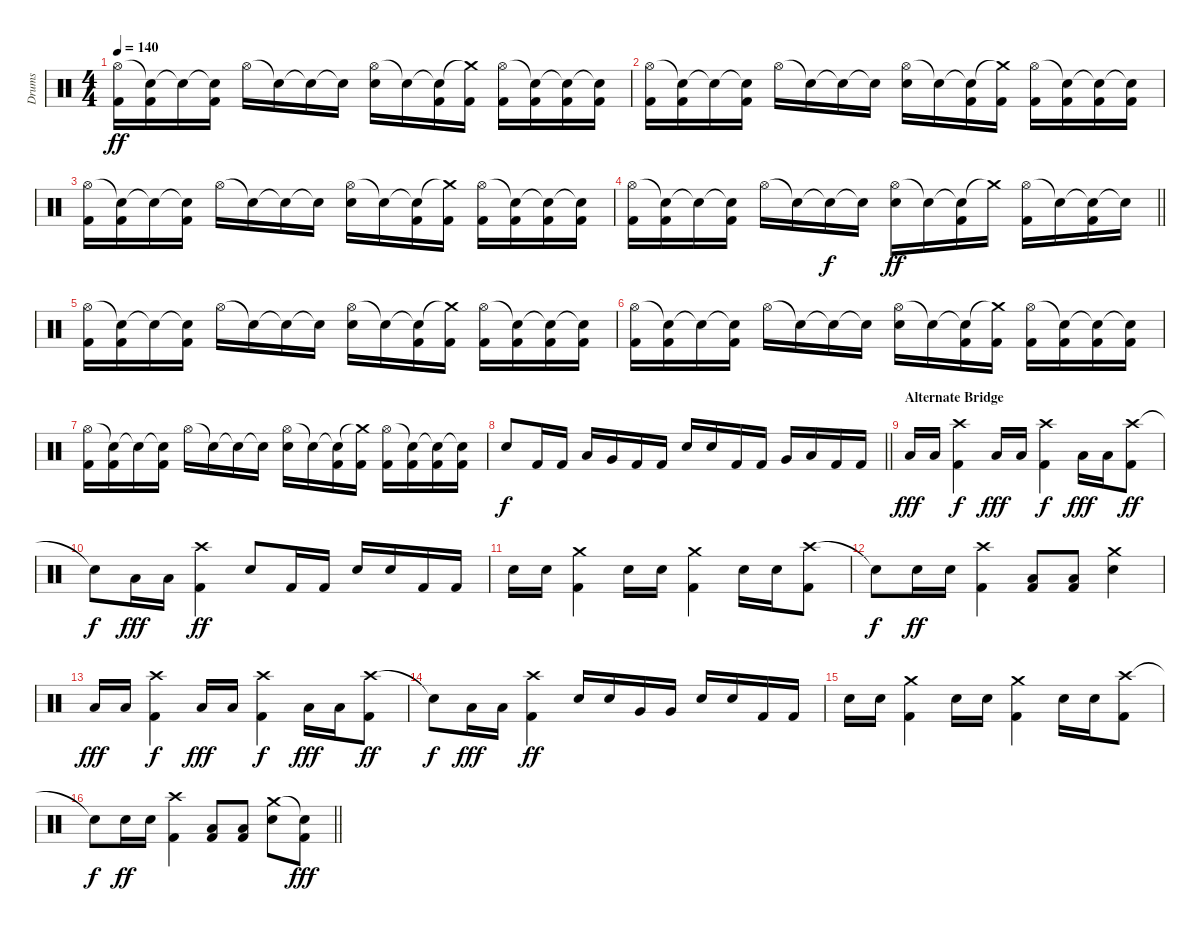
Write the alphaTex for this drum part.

\track ("Drums" "Drums") {instrument percussion}
\staff {score}
\articulation defaults
\ts (4 4)
\tempo 140
\clef neutral
\ks c
("Hi-Hat (open)" "Kick (hit) 2").16{dy ff} ("Snare (hit)"{t} "Kick (hit) 2").16 "Snare (hit)"{t}.16 ("Snare (hit)"{t} "Kick (hit) 2").16 "Hi-Hat (open)".16 "Snare (hit)"{t}.16 "Snare (hit)"{t}.16 "Snare (hit)"{t}.16 ("Hi-Hat (open)" "Electric Snare (hit)").16 "Snare (hit)"{t}.16 ("Snare (hit)"{t} "Kick (hit) 2").16 ("Crash medium (hit)"{t} "Kick (hit) 2").16 ("Hi-Hat (open)" "Kick (hit) 2").16 ("Snare (hit)"{t} "Kick (hit) 2").16 ("Snare (hit)"{t} "Kick (hit) 2").16 ("Snare (hit)"{t} "Kick (hit) 2").16 |
("Hi-Hat (open)" "Kick (hit) 2").16 ("Snare (hit)"{t} "Kick (hit) 2").16 "Snare (hit)"{t}.16 ("Snare (hit)"{t} "Kick (hit) 2").16 "Hi-Hat (open)".16 "Snare (hit)"{t}.16 "Snare (hit)"{t}.16 "Snare (hit)"{t}.16 ("Hi-Hat (open)" "Electric Snare (hit)").16 "Snare (hit)"{t}.16 ("Snare (hit)"{t} "Kick (hit) 2").16 ("Crash medium (hit)"{t} "Kick (hit) 2").16 ("Hi-Hat (open)" "Kick (hit) 2").16 ("Snare (hit)"{t} "Kick (hit) 2").16 ("Snare (hit)"{t} "Kick (hit) 2").16 ("Snare (hit)"{t} "Kick (hit) 2").16 |
("Hi-Hat (open)" "Kick (hit) 2").16 ("Snare (hit)"{t} "Kick (hit) 2").16 "Snare (hit)"{t}.16 ("Snare (hit)"{t} "Kick (hit) 2").16 "Hi-Hat (open)".16 "Snare (hit)"{t}.16 "Snare (hit)"{t}.16 "Snare (hit)"{t}.16 ("Hi-Hat (open)" "Electric Snare (hit)").16 "Snare (hit)"{t}.16 ("Snare (hit)"{t} "Kick (hit) 2").16 ("Crash medium (hit)"{t} "Kick (hit) 2").16 ("Hi-Hat (open)" "Kick (hit) 2").16 ("Snare (hit)"{t} "Kick (hit) 2").16 ("Snare (hit)"{t} "Kick (hit) 2").16 ("Snare (hit)"{t} "Kick (hit) 2").16 |
\barLineRight lightlight
("Hi-Hat (open)" "Kick (hit) 2").16 ("Snare (hit)"{t} "Kick (hit) 2").16 "Snare (hit)"{t}.16 ("Snare (hit)"{t} "Kick (hit) 2").16 "Hi-Hat (open)".16 "Snare (hit)"{t}.16 "Snare (hit)"{t}.16{dy f} "Snare (hit)"{t}.16 ("Hi-Hat (open)" "Electric Snare (hit)").16{dy ff} "Snare (hit)"{t}.16 ("Snare (hit)"{t} "Kick (hit) 2").16 "Crash medium (hit)"{t}.16 ("Hi-Hat (open)" "Kick (hit) 2").16 "Snare (hit)"{t}.16 ("Snare (hit)"{t} "Kick (hit) 2").16 "Snare (hit)"{t}.16 |
("Hi-Hat (open)" "Kick (hit) 2").16 ("Snare (hit)"{t} "Kick (hit) 2").16 "Snare (hit)"{t}.16 ("Snare (hit)"{t} "Kick (hit) 2").16 "Hi-Hat (open)".16 "Snare (hit)"{t}.16 "Snare (hit)"{t}.16 "Snare (hit)"{t}.16 ("Hi-Hat (open)" "Electric Snare (hit)").16 "Snare (hit)"{t}.16 ("Snare (hit)"{t} "Kick (hit) 2").16 ("Crash medium (hit)"{t} "Kick (hit) 2").16 ("Hi-Hat (open)" "Kick (hit) 2").16 ("Snare (hit)"{t} "Kick (hit) 2").16 ("Snare (hit)"{t} "Kick (hit) 2").16 ("Snare (hit)"{t} "Kick (hit) 2").16 |
("Hi-Hat (open)" "Kick (hit) 2").16 ("Snare (hit)"{t} "Kick (hit) 2").16 "Snare (hit)"{t}.16 ("Snare (hit)"{t} "Kick (hit) 2").16 "Hi-Hat (open)".16 "Snare (hit)"{t}.16 "Snare (hit)"{t}.16 "Snare (hit)"{t}.16 ("Hi-Hat (open)" "Electric Snare (hit)").16 "Snare (hit)"{t}.16 ("Snare (hit)"{t} "Kick (hit) 2").16 ("Crash medium (hit)"{t} "Kick (hit) 2").16 ("Hi-Hat (open)" "Kick (hit) 2").16 ("Snare (hit)"{t} "Kick (hit) 2").16 ("Snare (hit)"{t} "Kick (hit) 2").16 ("Snare (hit)"{t} "Kick (hit) 2").16 |
("Hi-Hat (open)" "Kick (hit) 2").16 ("Snare (hit)"{t} "Kick (hit) 2").16 "Snare (hit)"{t}.16 ("Snare (hit)"{t} "Kick (hit) 2").16 "Hi-Hat (open)".16 "Snare (hit)"{t}.16 "Snare (hit)"{t}.16 "Snare (hit)"{t}.16 ("Hi-Hat (open)" "Electric Snare (hit)").16 "Snare (hit)"{t}.16 ("Snare (hit)"{t} "Kick (hit) 2").16 ("Crash medium (hit)"{t} "Kick (hit) 2").16 ("Hi-Hat (open)" "Kick (hit) 2").16 ("Snare (hit)"{t} "Kick (hit) 2").16 ("Snare (hit)"{t} "Kick (hit) 2").16 ("Snare (hit)"{t} "Kick (hit) 2").16 |
\barLineRight lightlight "Electric Snare (hit)".8{dy f} "Kick (hit) 2".16 "Kick (hit) 2".16 "Low Tom (hit)".16 "Very Low Tom (hit)".16 "Kick (hit) 2".16 "Kick (hit) 2".16 "Electric Snare (hit)".16 "Electric Snare (hit)".16 "Kick (hit) 2".16 "Kick (hit) 2".16 "Very Low Tom (hit)".16 "Low Floor Tom (hit)".16 "Kick (hit) 2".16 "Kick (hit) 2".16
|
\section ("" "Alternate Bridge")
"Low Floor Tom (hit)".16{dy fff} "Low Floor Tom (hit)".16 ("Crash high (hit)" "Kick (hit) 2").4{dy f} "Low Floor Tom (hit)".16{dy fff} "Low Floor Tom (hit)".16 ("Crash high (hit)" "Kick (hit) 2").4{dy f} "Low Floor Tom (hit)".16{dy fff} "Low Floor Tom (hit)".16 ("Crash high (hit)" "Kick (hit) 2").8{dy ff} |
"Snare (hit)"{t}.8{dy f} "Low Floor Tom (hit)".16{dy fff} "Low Floor Tom (hit)".16 ("Crash high (hit)" "Kick (hit) 2").4{dy ff} "Electric Snare (hit)".8 "Kick (hit) 2".16 "Kick (hit) 2".16 "Electric Snare (hit)".16 "Electric Snare (hit)".16 "Kick (hit) 2".16 "Kick (hit) 2".16 |
"Electric Snare (hit)".16 "Electric Snare (hit)".16 ("Crash medium (hit)" "Kick (hit) 2").4 "Electric Snare (hit)".16 "Electric Snare (hit)".16 ("Crash medium (hit)" "Kick (hit) 2").4 "Electric Snare (hit)".16 "Electric Snare (hit)".16 ("Crash high (hit)" "Kick (hit) 2").8 |
"Snare (hit)"{t}.8{dy f} "Electric Snare (hit)".16{dy ff} "Electric Snare (hit)".16 ("Crash high (hit)" "Kick (hit) 2").4 ("Low Floor Tom (hit)" "Kick (hit) 2").8 ("Low Floor Tom (hit)" "Kick (hit) 2").8 ("Crash medium (hit)" "Electric Snare (hit)").4 |
"Low Floor Tom (hit)".16{dy fff} "Low Floor Tom (hit)".16 ("Crash high (hit)" "Kick (hit) 2").4{dy f} "Low Floor Tom (hit)".16{dy fff} "Low Floor Tom (hit)".16 ("Crash high (hit)" "Kick (hit) 2").4{dy f} "Low Floor Tom (hit)".16{dy fff} "Low Floor Tom (hit)".16 ("Crash high (hit)" "Kick (hit) 2").8{dy ff} |
"Snare (hit)"{t}.8{dy f} "Low Floor Tom (hit)".16{dy fff} "Low Floor Tom (hit)".16 ("Crash high (hit)" "Kick (hit) 2").4{dy ff} "Electric Snare (hit)".16 "Electric Snare (hit)".16 "Very Low Tom (hit)".16 "Very Low Tom (hit)".16 "Electric Snare (hit)".16 "Electric Snare (hit)".16 "Kick (hit) 2".16 "Kick (hit) 2".16 |
"Electric Snare (hit)".16 "Electric Snare (hit)".16 ("Crash medium (hit)" "Kick (hit) 2").4 "Electric Snare (hit)".16 "Electric Snare (hit)".16 ("Crash medium (hit)" "Kick (hit) 2").4 "Electric Snare (hit)".16 "Electric Snare (hit)".16 ("Crash high (hit)" "Kick (hit) 2").8 |
\barLineRight lightlight "Snare (hit)"{t}.8{dy f} "Electric Snare (hit)".16{dy ff} "Electric Snare (hit)".16
("Crash high (hit)" "Kick (hit) 2").4 ("Low Floor Tom (hit)" "Kick (hit) 2").8 ("Low Floor Tom (hit)" "Kick (hit) 2").8 ("Crash medium (hit)" "Electric Snare (hit)").8 ("Snare (hit)"{t} "Kick (hit) 2").8{dy fff}
